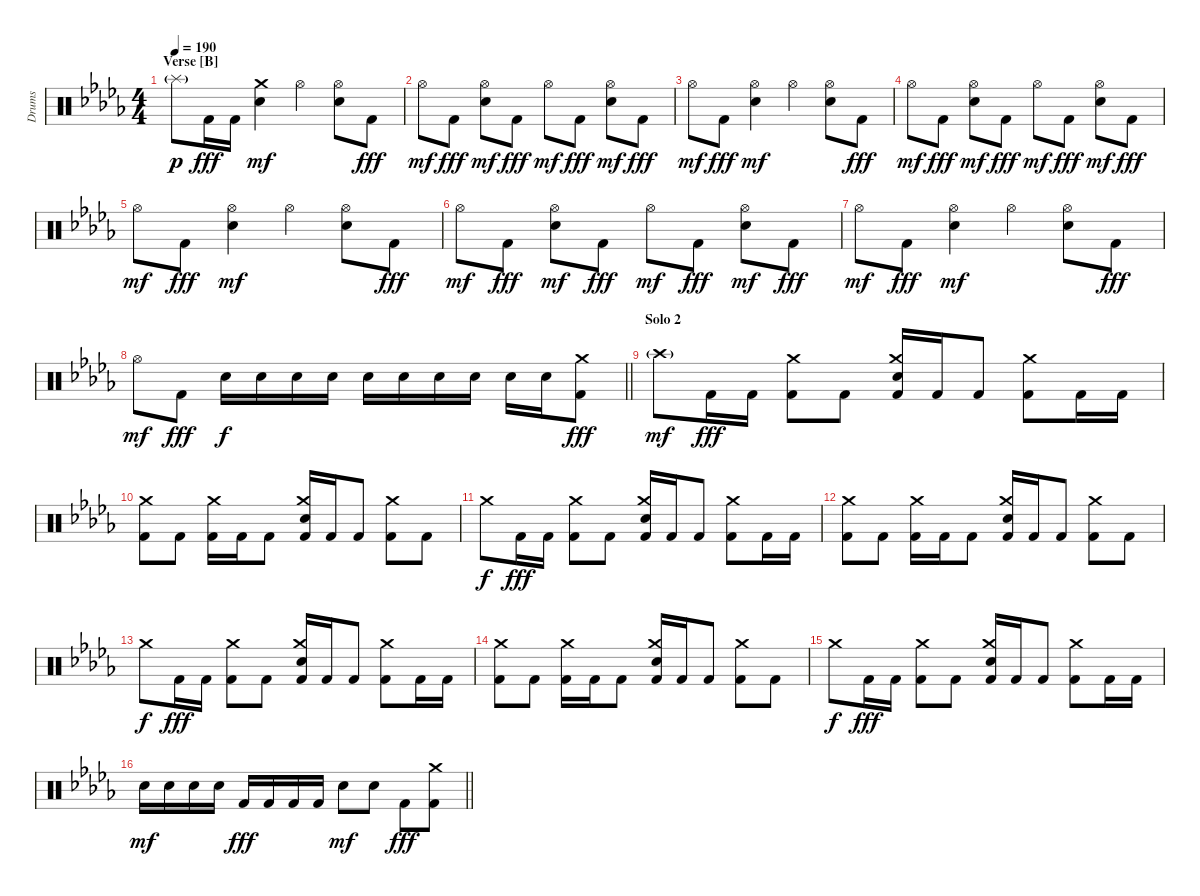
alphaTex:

\track ("Drums" "Drums") {instrument percussion}
\staff {score}
\articulation defaults
\ts (4 4)
\section ("" "Verse [B]")
\tempo 190
\clef neutral
\ks db "Splash (hit)"{g}.8{dy p} "Kick (hit) 2".16{dy fff} "Kick (hit) 2".16
("Crash medium (hit)" "Electric Snare (hit)").4{dy mf} "Hi-Hat (open)".4 ("Hi-Hat (open)" "Electric Snare (hit)").8 "Kick (hit) 2".8{dy fff} |
"Hi-Hat (open)".8{dy mf} "Kick (hit) 2".8{dy fff} ("Hi-Hat (open)" "Electric Snare (hit)").8{dy mf} "Kick (hit) 2".8{dy fff} "Hi-Hat (open)".8{dy mf} "Kick (hit) 2".8{dy fff} ("Hi-Hat (open)" "Electric Snare (hit)").8{dy mf} "Kick (hit) 2".8{dy fff} |
"Hi-Hat (open)".8{dy mf} "Kick (hit) 2".8{dy fff} ("Hi-Hat (open)" "Electric Snare (hit)").4{dy mf} "Hi-Hat (open)".4 ("Hi-Hat (open)" "Electric Snare (hit)").8 "Kick (hit) 2".8{dy fff} |
"Hi-Hat (open)".8{dy mf} "Kick (hit) 2".8{dy fff} ("Hi-Hat (open)" "Electric Snare (hit)").8{dy mf} "Kick (hit) 2".8{dy fff} "Hi-Hat (open)".8{dy mf} "Kick (hit) 2".8{dy fff} ("Hi-Hat (open)" "Electric Snare (hit)").8{dy mf} "Kick (hit) 2".8{dy fff} |
"Hi-Hat (open)".8{dy mf} "Kick (hit) 2".8{dy fff} ("Hi-Hat (open)" "Electric Snare (hit)").4{dy mf} "Hi-Hat (open)".4 ("Hi-Hat (open)" "Electric Snare (hit)").8 "Kick (hit) 2".8{dy fff} |
"Hi-Hat (open)".8{dy mf} "Kick (hit) 2".8{dy fff} ("Hi-Hat (open)" "Electric Snare (hit)").8{dy mf} "Kick (hit) 2".8{dy fff} "Hi-Hat (open)".8{dy mf} "Kick (hit) 2".8{dy fff} ("Hi-Hat (open)" "Electric Snare (hit)").8{dy mf} "Kick (hit) 2".8{dy fff} |
"Hi-Hat (open)".8{dy mf} "Kick (hit) 2".8{dy fff} ("Hi-Hat (open)" "Electric Snare (hit)").4{dy mf} "Hi-Hat (open)".4 ("Hi-Hat (open)" "Electric Snare (hit)").8 "Kick (hit) 2".8{dy fff} |
\barLineRight lightlight "Hi-Hat (open)".8{dy mf} "Kick (hit) 2".8{dy fff} "Electric Snare (hit)".16{dy f} "Electric Snare (hit)".16 "Electric Snare (hit)".16 "Electric Snare (hit)".16 "Electric Snare (hit)".16 "Electric Snare (hit)".16 "Electric Snare (hit)".16 "Electric Snare (hit)".16 "Electric Snare (hit)".16 "Electric Snare (hit)".16
("Crash medium (hit)" "Kick (hit) 2").8{dy fff} |
\section ("" "Solo 2")
"Crash high (hit)"{g}.8{dy mf} "Kick (hit) 2".16{dy fff} "Kick (hit) 2".16 ("Crash medium (hit)" "Kick (hit) 2").8 "Kick (hit) 2".8 ("Crash medium (hit)" "Electric Snare (hit)" "Kick (hit) 2").16 "Kick (hit) 2".16 "Kick (hit) 2".8 ("Crash medium (hit)" "Kick (hit) 2").8 "Kick (hit) 2".16 "Kick (hit) 2".16 |
("Crash medium (hit)" "Kick (hit) 2").8 "Kick (hit) 2".8 ("Crash medium (hit)" "Kick (hit) 2").16 "Kick (hit) 2".16 "Kick (hit) 2".8 ("Crash medium (hit)" "Electric Snare (hit)" "Kick (hit) 2").16 "Kick (hit) 2".16 "Kick (hit) 2".8 ("Crash medium (hit)" "Kick (hit) 2").8 "Kick (hit) 2".8 |
"Crash medium (hit)".8{dy f} "Kick (hit) 2".16{dy fff} "Kick (hit) 2".16 ("Crash medium (hit)" "Kick (hit) 2").8 "Kick (hit) 2".8 ("Crash medium (hit)" "Electric Snare (hit)" "Kick (hit) 2").16 "Kick (hit) 2".16 "Kick (hit) 2".8 ("Crash medium (hit)" "Kick (hit) 2").8 "Kick (hit) 2".16 "Kick (hit) 2".16 |
("Crash medium (hit)" "Kick (hit) 2").8 "Kick (hit) 2".8 ("Crash medium (hit)" "Kick (hit) 2").16 "Kick (hit) 2".16 "Kick (hit) 2".8 ("Crash medium (hit)" "Electric Snare (hit)" "Kick (hit) 2").16 "Kick (hit) 2".16 "Kick (hit) 2".8 ("Crash medium (hit)" "Kick (hit) 2").8 "Kick (hit) 2".8 |
"Crash medium (hit)".8{dy f} "Kick (hit) 2".16{dy fff} "Kick (hit) 2".16 ("Crash medium (hit)" "Kick (hit) 2").8 "Kick (hit) 2".8 ("Crash medium (hit)" "Electric Snare (hit)" "Kick (hit) 2").16 "Kick (hit) 2".16 "Kick (hit) 2".8 ("Crash medium (hit)" "Kick (hit) 2").8 "Kick (hit) 2".16 "Kick (hit) 2".16 |
("Crash medium (hit)" "Kick (hit) 2").8 "Kick (hit) 2".8 ("Crash medium (hit)" "Kick (hit) 2").16 "Kick (hit) 2".16 "Kick (hit) 2".8 ("Crash medium (hit)" "Electric Snare (hit)" "Kick (hit) 2").16 "Kick (hit) 2".16 "Kick (hit) 2".8 ("Crash medium (hit)" "Kick (hit) 2").8 "Kick (hit) 2".8 |
"Crash medium (hit)".8{dy f} "Kick (hit) 2".16{dy fff} "Kick (hit) 2".16 ("Crash medium (hit)" "Kick (hit) 2").8 "Kick (hit) 2".8 ("Crash medium (hit)" "Electric Snare (hit)" "Kick (hit) 2").16 "Kick (hit) 2".16 "Kick (hit) 2".8 ("Crash medium (hit)" "Kick (hit) 2").8 "Kick (hit) 2".16 "Kick (hit) 2".16 |
\barLineRight lightlight "Electric Snare (hit)".16{dy mf} "Electric Snare (hit)".16 "Electric Snare (hit)".16 "Electric Snare (hit)".16 "Kick (hit) 2".16{dy fff} "Kick (hit) 2".16 "Kick (hit) 2".16 "Kick (hit) 2".16 "Electric Snare (hit)".8{dy mf} "Electric Snare (hit)".8 "Kick (hit) 2".8{dy fff}
("Crash medium (hit)" "Kick (hit) 2").8
